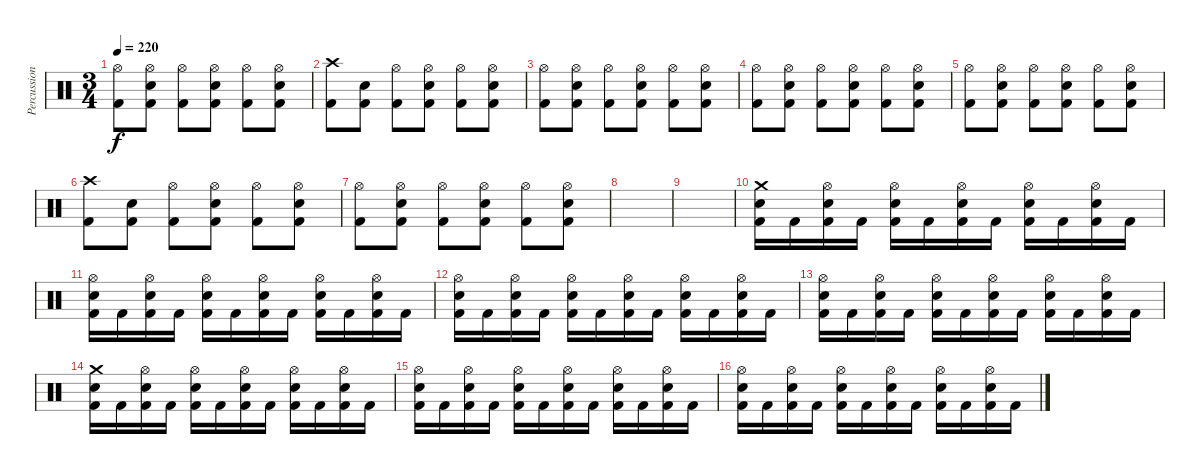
\track ("Percussion" "Percussion") {instrument percussion}
\staff {score}
\articulation defaults
\ts (3 4)
\tempo 220
\clef neutral
\ks c
("Hi-Hat (open)" "Kick (hit) 2").8{dy f} ("Hi-Hat (open)" "Electric Snare (hit)" "Kick (hit) 2").8 ("Hi-Hat (open)" "Kick (hit) 2").8 ("Hi-Hat (open)" "Electric Snare (hit)" "Kick (hit) 2").8 ("Hi-Hat (open)" "Kick (hit) 2").8 ("Hi-Hat (open)" "Electric Snare (hit)" "Kick (hit) 2").8 |
("Crash high (hit)" "Kick (hit) 2").8 ("Electric Snare (hit)" "Kick (hit) 2").8 ("Hi-Hat (open)" "Kick (hit) 2").8 ("Hi-Hat (open)" "Electric Snare (hit)" "Kick (hit) 2").8 ("Hi-Hat (open)" "Kick (hit) 2").8 ("Hi-Hat (open)" "Electric Snare (hit)" "Kick (hit) 2").8 |
("Hi-Hat (open)" "Kick (hit) 2").8 ("Hi-Hat (open)" "Electric Snare (hit)" "Kick (hit) 2").8 ("Hi-Hat (open)" "Kick (hit) 2").8 ("Hi-Hat (open)" "Electric Snare (hit)" "Kick (hit) 2").8 ("Hi-Hat (open)" "Kick (hit) 2").8 ("Hi-Hat (open)" "Electric Snare (hit)" "Kick (hit) 2").8 |
("Hi-Hat (open)" "Kick (hit) 2").8 ("Hi-Hat (open)" "Electric Snare (hit)" "Kick (hit) 2").8 ("Hi-Hat (open)" "Kick (hit) 2").8 ("Hi-Hat (open)" "Electric Snare (hit)" "Kick (hit) 2").8 ("Hi-Hat (open)" "Kick (hit) 2").8 ("Hi-Hat (open)" "Electric Snare (hit)" "Kick (hit) 2").8 |
("Hi-Hat (open)" "Kick (hit) 2").8 ("Hi-Hat (open)" "Electric Snare (hit)" "Kick (hit) 2").8 ("Hi-Hat (open)" "Kick (hit) 2").8 ("Hi-Hat (open)" "Electric Snare (hit)" "Kick (hit) 2").8 ("Hi-Hat (open)" "Kick (hit) 2").8 ("Hi-Hat (open)" "Electric Snare (hit)" "Kick (hit) 2").8 |
("Crash high (hit)" "Kick (hit) 2").8 ("Electric Snare (hit)" "Kick (hit) 2").8 ("Hi-Hat (open)" "Kick (hit) 2").8 ("Hi-Hat (open)" "Electric Snare (hit)" "Kick (hit) 2").8 ("Hi-Hat (open)" "Kick (hit) 2").8 ("Hi-Hat (open)" "Electric Snare (hit)" "Kick (hit) 2").8 |
("Hi-Hat (open)" "Kick (hit) 2").8 ("Hi-Hat (open)" "Electric Snare (hit)" "Kick (hit) 2").8 ("Hi-Hat (open)" "Kick (hit) 2").8 ("Hi-Hat (open)" "Electric Snare (hit)" "Kick (hit) 2").8 ("Hi-Hat (open)" "Kick (hit) 2").8 ("Hi-Hat (open)" "Electric Snare (hit)" "Kick (hit) 2").8 |
|
|
("Crash medium (hit)" "Electric Snare (hit)" "Kick (hit) 2").16 "Kick (hit) 2".16 ("Hi-Hat (open)" "Electric Snare (hit)" "Kick (hit) 2").16 "Kick (hit) 2".16 ("Hi-Hat (open)" "Electric Snare (hit)" "Kick (hit) 2").16 "Kick (hit) 2".16 ("Hi-Hat (open)" "Electric Snare (hit)" "Kick (hit) 2").16 "Kick (hit) 2".16 ("Hi-Hat (open)" "Electric Snare (hit)" "Kick (hit) 2").16 "Kick (hit) 2".16 ("Hi-Hat (open)" "Electric Snare (hit)" "Kick (hit) 2").16 "Kick (hit) 2".16 |
("Hi-Hat (open)" "Electric Snare (hit)" "Kick (hit) 2").16 "Kick (hit) 2".16 ("Hi-Hat (open)" "Electric Snare (hit)" "Kick (hit) 2").16 "Kick (hit) 2".16 ("Hi-Hat (open)" "Electric Snare (hit)" "Kick (hit) 2").16 "Kick (hit) 2".16 ("Hi-Hat (open)" "Electric Snare (hit)" "Kick (hit) 2").16 "Kick (hit) 2".16 ("Hi-Hat (open)" "Electric Snare (hit)" "Kick (hit) 2").16 "Kick (hit) 2".16 ("Hi-Hat (open)" "Electric Snare (hit)" "Kick (hit) 2").16 "Kick (hit) 2".16 |
("Hi-Hat (open)" "Electric Snare (hit)" "Kick (hit) 2").16 "Kick (hit) 2".16 ("Hi-Hat (open)" "Electric Snare (hit)" "Kick (hit) 2").16 "Kick (hit) 2".16 ("Hi-Hat (open)" "Electric Snare (hit)" "Kick (hit) 2").16 "Kick (hit) 2".16 ("Hi-Hat (open)" "Electric Snare (hit)" "Kick (hit) 2").16 "Kick (hit) 2".16 ("Hi-Hat (open)" "Electric Snare (hit)" "Kick (hit) 2").16 "Kick (hit) 2".16 ("Hi-Hat (open)" "Electric Snare (hit)" "Kick (hit) 2").16 "Kick (hit) 2".16 |
("Hi-Hat (open)" "Electric Snare (hit)" "Kick (hit) 2").16 "Kick (hit) 2".16 ("Hi-Hat (open)" "Electric Snare (hit)" "Kick (hit) 2").16 "Kick (hit) 2".16 ("Hi-Hat (open)" "Electric Snare (hit)" "Kick (hit) 2").16 "Kick (hit) 2".16 ("Hi-Hat (open)" "Electric Snare (hit)" "Kick (hit) 2").16 "Kick (hit) 2".16 ("Hi-Hat (open)" "Electric Snare (hit)" "Kick (hit) 2").16 "Kick (hit) 2".16 ("Hi-Hat (open)" "Electric Snare (hit)" "Kick (hit) 2").16 "Kick (hit) 2".16 |
("Crash medium (hit)" "Electric Snare (hit)" "Kick (hit) 2").16 "Kick (hit) 2".16 ("Hi-Hat (open)" "Electric Snare (hit)" "Kick (hit) 2").16 "Kick (hit) 2".16 ("Hi-Hat (open)" "Electric Snare (hit)" "Kick (hit) 2").16 "Kick (hit) 2".16 ("Hi-Hat (open)" "Electric Snare (hit)" "Kick (hit) 2").16 "Kick (hit) 2".16 ("Hi-Hat (open)" "Electric Snare (hit)" "Kick (hit) 2").16 "Kick (hit) 2".16 ("Hi-Hat (open)" "Electric Snare (hit)" "Kick (hit) 2").16 "Kick (hit) 2".16 |
("Hi-Hat (open)" "Electric Snare (hit)" "Kick (hit) 2").16 "Kick (hit) 2".16 ("Hi-Hat (open)" "Electric Snare (hit)" "Kick (hit) 2").16 "Kick (hit) 2".16 ("Hi-Hat (open)" "Electric Snare (hit)" "Kick (hit) 2").16 "Kick (hit) 2".16 ("Hi-Hat (open)" "Electric Snare (hit)" "Kick (hit) 2").16 "Kick (hit) 2".16 ("Hi-Hat (open)" "Electric Snare (hit)" "Kick (hit) 2").16 "Kick (hit) 2".16 ("Hi-Hat (open)" "Electric Snare (hit)" "Kick (hit) 2").16 "Kick (hit) 2".16 |
("Hi-Hat (open)" "Electric Snare (hit)" "Kick (hit) 2").16 "Kick (hit) 2".16 ("Hi-Hat (open)" "Electric Snare (hit)" "Kick (hit) 2").16 "Kick (hit) 2".16 ("Hi-Hat (open)" "Electric Snare (hit)" "Kick (hit) 2").16 "Kick (hit) 2".16 ("Hi-Hat (open)" "Electric Snare (hit)" "Kick (hit) 2").16 "Kick (hit) 2".16 ("Hi-Hat (open)" "Electric Snare (hit)" "Kick (hit) 2").16 "Kick (hit) 2".16 ("Hi-Hat (open)" "Electric Snare (hit)" "Kick (hit) 2").16 "Kick (hit) 2".16
